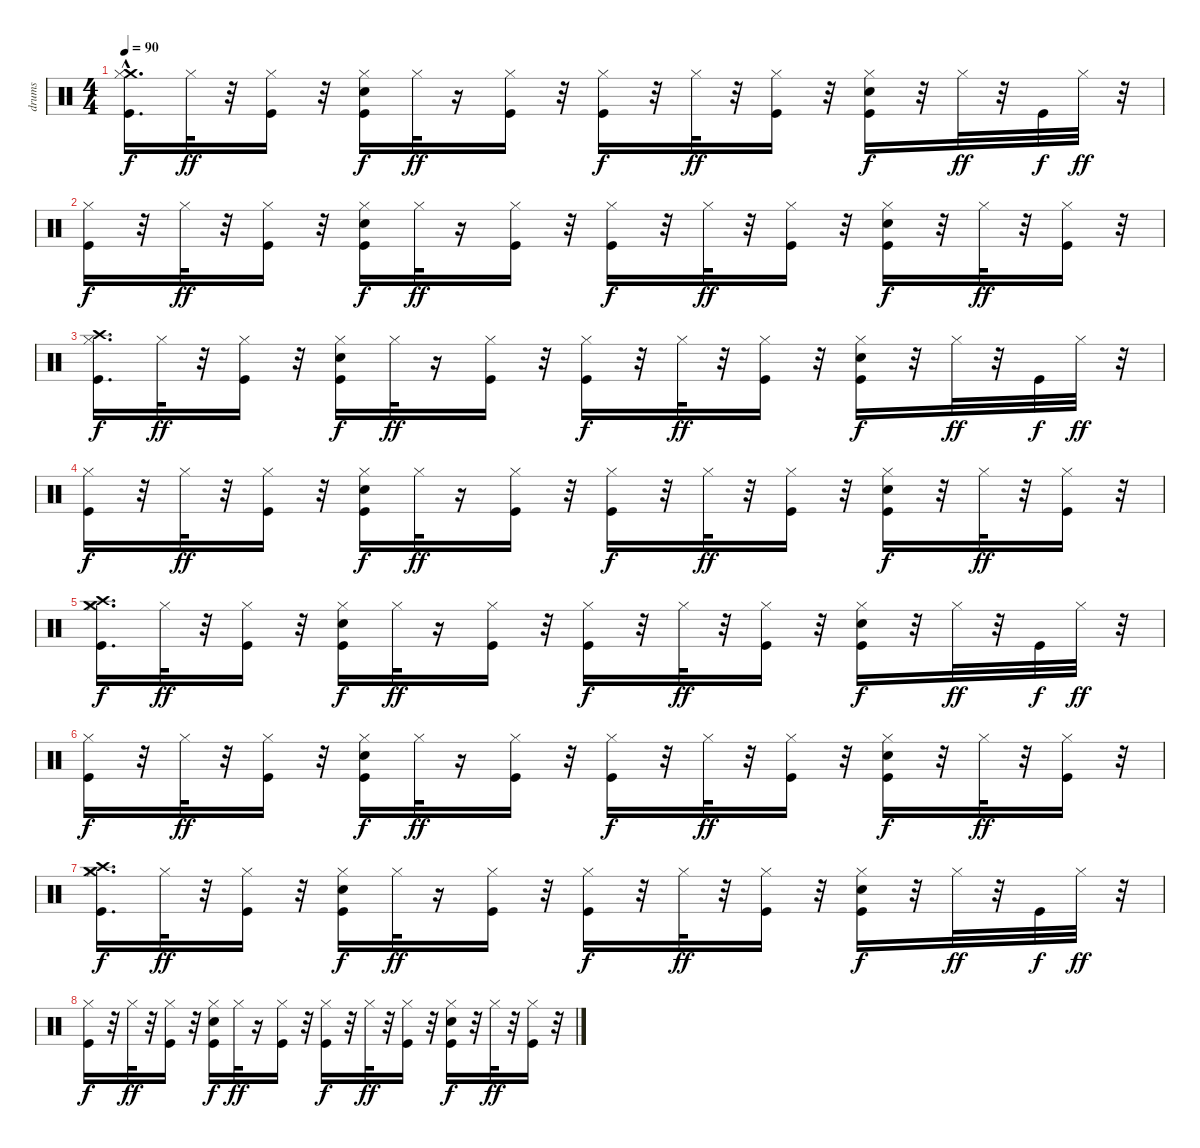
\track ("drums" "drums") {instrument percussion}
\staff {score}
\articulation defaults
\ts (4 4)
\tempo 90
\clef neutral
\ks c
("Kick (hit)" "Crash medium (hit)"{hac} "Hi-Hat (closed)").16{d dy f} "Hi-Hat (closed)".32{dy ff} r.32 ("Kick (hit)" "Hi-Hat (closed)").16 r.32 ("Kick (hit)" "Electric Snare (hit)" "Hi-Hat (closed)").16{dy f} "Hi-Hat (closed)".32{dy ff} r.16 ("Kick (hit)" "Hi-Hat (closed)").16 r.32 ("Kick (hit)" "Hi-Hat (closed)").16{dy f} r.32 "Hi-Hat (closed)".32{dy ff} r.32 ("Kick (hit)" "Hi-Hat (closed)").16 r.32 ("Kick (hit)" "Electric Snare (hit)" "Hi-Hat (closed)").16{dy f} r.32 "Hi-Hat (closed)".32{dy ff} r.32 "Kick (hit)".32{dy f} "Hi-Hat (closed)".32{dy ff} r.32 |
("Kick (hit)" "Hi-Hat (closed)").16{dy f} r.32 "Hi-Hat (closed)".32{dy ff} r.32 ("Kick (hit)" "Hi-Hat (closed)").16 r.32 ("Kick (hit)" "Electric Snare (hit)" "Hi-Hat (closed)").16{dy f} "Hi-Hat (closed)".32{dy ff} r.16 ("Kick (hit)" "Hi-Hat (closed)").16 r.32 ("Kick (hit)" "Hi-Hat (closed)").16{dy f} r.32 "Hi-Hat (closed)".32{dy ff} r.32 ("Kick (hit)" "Hi-Hat (closed)").16 r.32 ("Kick (hit)" "Electric Snare (hit)" "Hi-Hat (closed)").16{dy f} r.32 "Hi-Hat (closed)".32{dy ff} r.32 ("Kick (hit)" "Hi-Hat (closed)").16 r.32 |
("Crash high (hit)" "Kick (hit)" "Hi-Hat (closed)").16{d dy f} "Hi-Hat (closed)".32{dy ff} r.32 ("Kick (hit)" "Hi-Hat (closed)").16 r.32 ("Kick (hit)" "Electric Snare (hit)" "Hi-Hat (closed)").16{dy f} "Hi-Hat (closed)".32{dy ff} r.16 ("Kick (hit)" "Hi-Hat (closed)").16 r.32 ("Kick (hit)" "Hi-Hat (closed)").16{dy f} r.32 "Hi-Hat (closed)".32{dy ff} r.32 ("Kick (hit)" "Hi-Hat (closed)").16 r.32 ("Kick (hit)" "Electric Snare (hit)" "Hi-Hat (closed)").16{dy f} r.32 "Hi-Hat (closed)".32{dy ff} r.32 "Kick (hit)".32{dy f} "Hi-Hat (closed)".32{dy ff} r.32 |
("Kick (hit)" "Hi-Hat (closed)").16{dy f} r.32 "Hi-Hat (closed)".32{dy ff} r.32 ("Kick (hit)" "Hi-Hat (closed)").16 r.32 ("Kick (hit)" "Electric Snare (hit)" "Hi-Hat (closed)").16{dy f} "Hi-Hat (closed)".32{dy ff} r.16 ("Kick (hit)" "Hi-Hat (closed)").16 r.32 ("Kick (hit)" "Hi-Hat (closed)").16{dy f} r.32 "Hi-Hat (closed)".32{dy ff} r.32 ("Kick (hit)" "Hi-Hat (closed)").16 r.32 ("Kick (hit)" "Electric Snare (hit)" "Hi-Hat (closed)").16{dy f} r.32 "Hi-Hat (closed)".32{dy ff} r.32 ("Kick (hit)" "Hi-Hat (closed)").16 r.32 |
("Crash medium (hit)" "Crash high (hit)" "Kick (hit)" "Hi-Hat (closed)").16{d dy f} "Hi-Hat (closed)".32{dy ff} r.32 ("Kick (hit)" "Hi-Hat (closed)").16 r.32 ("Kick (hit)" "Electric Snare (hit)" "Hi-Hat (closed)").16{dy f} "Hi-Hat (closed)".32{dy ff} r.16 ("Kick (hit)" "Hi-Hat (closed)").16 r.32 ("Kick (hit)" "Hi-Hat (closed)").16{dy f} r.32 "Hi-Hat (closed)".32{dy ff} r.32 ("Kick (hit)" "Hi-Hat (closed)").16 r.32 ("Kick (hit)" "Electric Snare (hit)" "Hi-Hat (closed)").16{dy f} r.32 "Hi-Hat (closed)".32{dy ff} r.32 "Kick (hit)".32{dy f} "Hi-Hat (closed)".32{dy ff} r.32 |
("Kick (hit)" "Hi-Hat (closed)").16{dy f} r.32 "Hi-Hat (closed)".32{dy ff} r.32 ("Kick (hit)" "Hi-Hat (closed)").16 r.32 ("Kick (hit)" "Electric Snare (hit)" "Hi-Hat (closed)").16{dy f} "Hi-Hat (closed)".32{dy ff} r.16 ("Kick (hit)" "Hi-Hat (closed)").16 r.32 ("Kick (hit)" "Hi-Hat (closed)").16{dy f} r.32 "Hi-Hat (closed)".32{dy ff} r.32 ("Kick (hit)" "Hi-Hat (closed)").16 r.32 ("Kick (hit)" "Electric Snare (hit)" "Hi-Hat (closed)").16{dy f} r.32 "Hi-Hat (closed)".32{dy ff} r.32 ("Kick (hit)" "Hi-Hat (closed)").16 r.32 |
("Crash medium (hit)" "Crash high (hit)" "Kick (hit)" "Hi-Hat (closed)").16{d dy f} "Hi-Hat (closed)".32{dy ff} r.32 ("Kick (hit)" "Hi-Hat (closed)").16 r.32 ("Kick (hit)" "Electric Snare (hit)" "Hi-Hat (closed)").16{dy f} "Hi-Hat (closed)".32{dy ff} r.16 ("Kick (hit)" "Hi-Hat (closed)").16 r.32 ("Kick (hit)" "Hi-Hat (closed)").16{dy f} r.32 "Hi-Hat (closed)".32{dy ff} r.32 ("Kick (hit)" "Hi-Hat (closed)").16 r.32 ("Kick (hit)" "Electric Snare (hit)" "Hi-Hat (closed)").16{dy f} r.32 "Hi-Hat (closed)".32{dy ff} r.32 "Kick (hit)".32{dy f} "Hi-Hat (closed)".32{dy ff} r.32 |
("Kick (hit)" "Hi-Hat (closed)").16{dy f} r.32 "Hi-Hat (closed)".32{dy ff} r.32 ("Kick (hit)" "Hi-Hat (closed)").16 r.32 ("Kick (hit)" "Electric Snare (hit)" "Hi-Hat (closed)").16{dy f} "Hi-Hat (closed)".32{dy ff} r.16 ("Kick (hit)" "Hi-Hat (closed)").16 r.32 ("Kick (hit)" "Hi-Hat (closed)").16{dy f} r.32 "Hi-Hat (closed)".32{dy ff} r.32 ("Kick (hit)" "Hi-Hat (closed)").16 r.32 ("Kick (hit)" "Electric Snare (hit)" "Hi-Hat (closed)").16{dy f} r.32 "Hi-Hat (closed)".32{dy ff} r.32 ("Kick (hit)" "Hi-Hat (closed)").16 r.32
